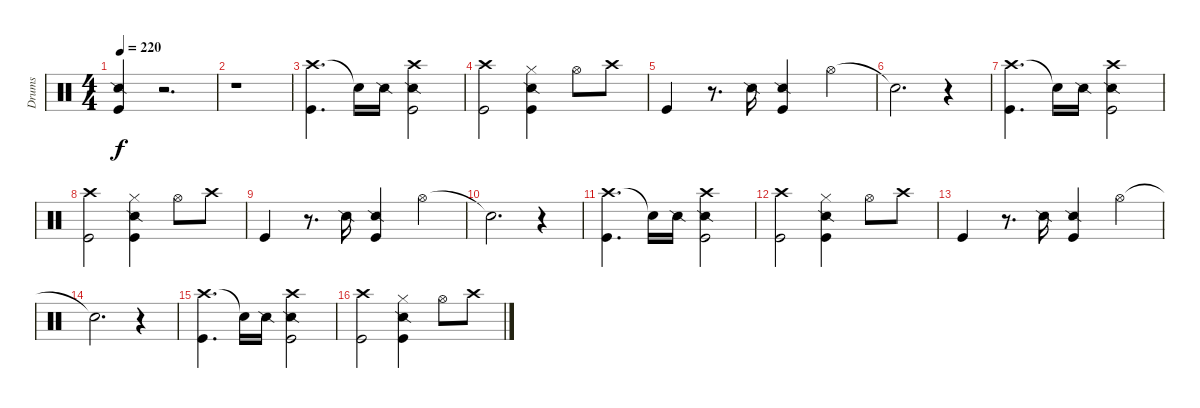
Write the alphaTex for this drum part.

\track ("Drums" "Drums") {instrument percussion}
\staff {score}
\articulation defaults
\ts (4 4)
\tempo 220
\clef neutral
\ks c
("Snare (side stick) 2" "Kick (hit)").4{dy f} r.2{d} |
r.1 |
("Crash high (hit)" "Kick (hit)").4{d} "Snare (hit)"{t}.16 "Snare (side stick) 2".16 ("Crash high (hit)" "Snare (side stick) 2" "Kick (hit)").2 |
("Crash high (hit)" "Kick (hit)").2 ("Hi-Hat (closed)" "Snare (side stick) 2" "Kick (hit)").4 "Hi-Hat (open)".8 "Crash high (hit)".8 |
"Kick (hit)".4 r.8{d} "Snare (side stick) 2".16 ("Snare (side stick) 2" "Kick (hit)").4 "Hi-Hat (open)".4 |
"Snare (hit)"{t}.2{d} r.4 |
("Crash high (hit)" "Kick (hit)").4{d} "Snare (hit)"{t}.16 "Snare (side stick) 2".16 ("Crash high (hit)" "Snare (side stick) 2" "Kick (hit)").2 |
("Crash high (hit)" "Kick (hit)").2 ("Hi-Hat (closed)" "Snare (side stick) 2" "Kick (hit)").4 "Hi-Hat (open)".8 "Crash high (hit)".8 |
"Kick (hit)".4 r.8{d} "Snare (side stick) 2".16 ("Snare (side stick) 2" "Kick (hit)").4 "Hi-Hat (open)".4 |
"Snare (hit)"{t}.2{d} r.4 |
("Crash high (hit)" "Kick (hit)").4{d} "Snare (hit)"{t}.16 "Snare (side stick) 2".16 ("Crash high (hit)" "Snare (side stick) 2" "Kick (hit)").2 |
("Crash high (hit)" "Kick (hit)").2 ("Hi-Hat (closed)" "Snare (side stick) 2" "Kick (hit)").4 "Hi-Hat (open)".8 "Crash high (hit)".8 |
"Kick (hit)".4 r.8{d} "Snare (side stick) 2".16 ("Snare (side stick) 2" "Kick (hit)").4 "Hi-Hat (open)".4 |
"Snare (hit)"{t}.2{d} r.4 |
("Crash high (hit)" "Kick (hit)").4{d} "Snare (hit)"{t}.16 "Snare (side stick) 2".16 ("Crash high (hit)" "Snare (side stick) 2" "Kick (hit)").2 |
("Crash high (hit)" "Kick (hit)").2 ("Hi-Hat (closed)" "Snare (side stick) 2" "Kick (hit)").4 "Hi-Hat (open)".8 "Crash high (hit)".8
